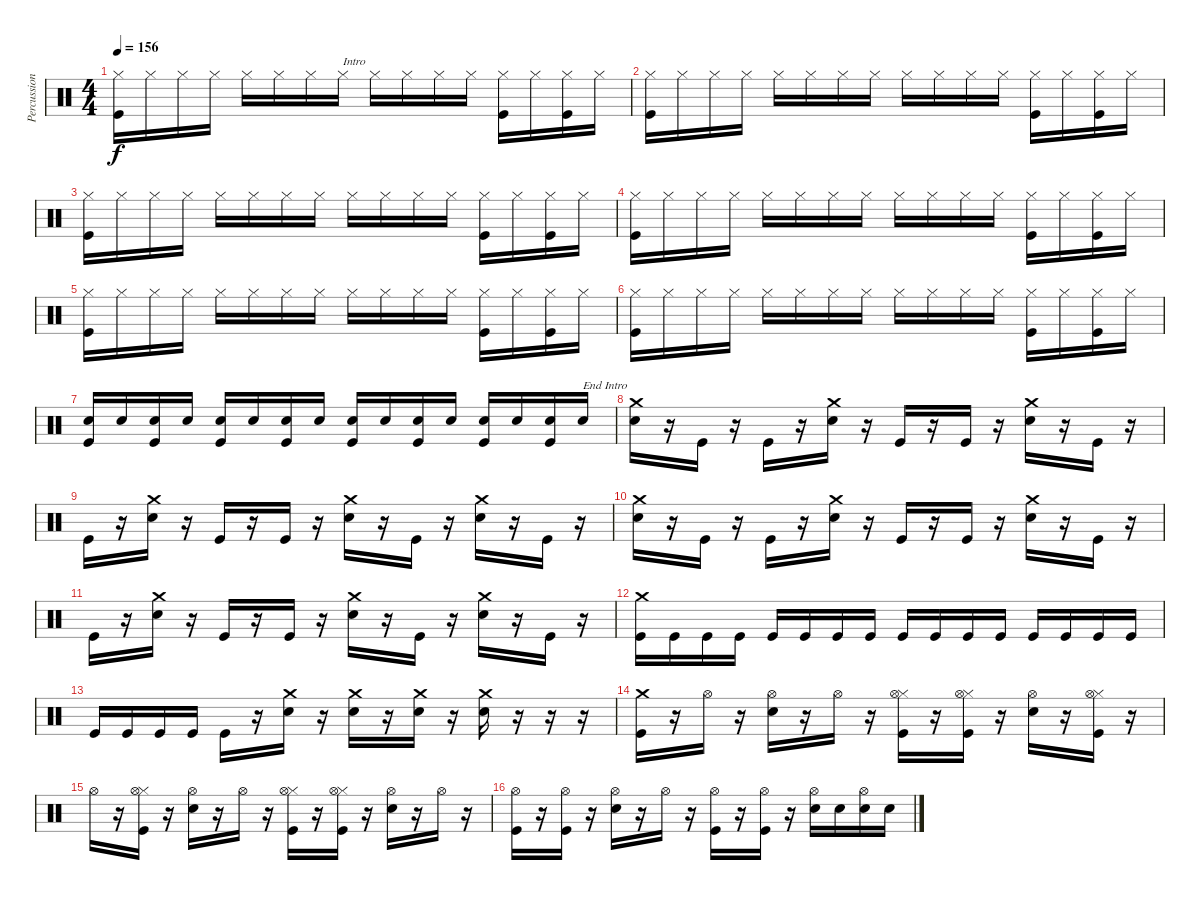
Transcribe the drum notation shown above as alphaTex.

\track ("Percussion" "Percussion") {instrument percussion}
\staff {score}
\articulation defaults
\ts (4 4)
\tempo 156
\clef neutral
\ks c
("Kick (hit)" "Hi-Hat (closed)").16{dy f} "Hi-Hat (closed)".16 "Hi-Hat (closed)".16 "Hi-Hat (closed)".16 "Hi-Hat (closed)".16 "Hi-Hat (closed)".16 "Hi-Hat (closed)".16 "Hi-Hat (closed)".16{txt "Intro"} "Hi-Hat (closed)".16 "Hi-Hat (closed)".16 "Hi-Hat (closed)".16 "Hi-Hat (closed)".16 ("Kick (hit)" "Hi-Hat (closed)").16 "Hi-Hat (closed)".16 ("Kick (hit)" "Hi-Hat (closed)").16 "Hi-Hat (closed)".16 |
("Kick (hit)" "Hi-Hat (closed)").16 "Hi-Hat (closed)".16 "Hi-Hat (closed)".16 "Hi-Hat (closed)".16 "Hi-Hat (closed)".16 "Hi-Hat (closed)".16 "Hi-Hat (closed)".16 "Hi-Hat (closed)".16 "Hi-Hat (closed)".16 "Hi-Hat (closed)".16 "Hi-Hat (closed)".16 "Hi-Hat (closed)".16 ("Kick (hit)" "Hi-Hat (closed)").16 "Hi-Hat (closed)".16 ("Kick (hit)" "Hi-Hat (closed)").16 "Hi-Hat (closed)".16 |
("Kick (hit)" "Hi-Hat (closed)").16 "Hi-Hat (closed)".16 "Hi-Hat (closed)".16 "Hi-Hat (closed)".16 "Hi-Hat (closed)".16 "Hi-Hat (closed)".16 "Hi-Hat (closed)".16 "Hi-Hat (closed)".16 "Hi-Hat (closed)".16 "Hi-Hat (closed)".16 "Hi-Hat (closed)".16 "Hi-Hat (closed)".16 ("Kick (hit)" "Hi-Hat (closed)").16 "Hi-Hat (closed)".16 ("Kick (hit)" "Hi-Hat (closed)").16 "Hi-Hat (closed)".16 |
("Kick (hit)" "Hi-Hat (closed)").16 "Hi-Hat (closed)".16 "Hi-Hat (closed)".16 "Hi-Hat (closed)".16 "Hi-Hat (closed)".16 "Hi-Hat (closed)".16 "Hi-Hat (closed)".16 "Hi-Hat (closed)".16 "Hi-Hat (closed)".16 "Hi-Hat (closed)".16 "Hi-Hat (closed)".16 "Hi-Hat (closed)".16 ("Kick (hit)" "Hi-Hat (closed)").16 "Hi-Hat (closed)".16 ("Kick (hit)" "Hi-Hat (closed)").16 "Hi-Hat (closed)".16 |
("Kick (hit)" "Hi-Hat (closed)").16 "Hi-Hat (closed)".16 "Hi-Hat (closed)".16 "Hi-Hat (closed)".16 "Hi-Hat (closed)".16 "Hi-Hat (closed)".16 "Hi-Hat (closed)".16 "Hi-Hat (closed)".16 "Hi-Hat (closed)".16 "Hi-Hat (closed)".16 "Hi-Hat (closed)".16 "Hi-Hat (closed)".16 ("Kick (hit)" "Hi-Hat (closed)").16 "Hi-Hat (closed)".16 ("Kick (hit)" "Hi-Hat (closed)").16 "Hi-Hat (closed)".16 |
("Kick (hit)" "Hi-Hat (closed)").16 "Hi-Hat (closed)".16 "Hi-Hat (closed)".16 "Hi-Hat (closed)".16 "Hi-Hat (closed)".16 "Hi-Hat (closed)".16 "Hi-Hat (closed)".16 "Hi-Hat (closed)".16 "Hi-Hat (closed)".16 "Hi-Hat (closed)".16 "Hi-Hat (closed)".16 "Hi-Hat (closed)".16 ("Kick (hit)" "Hi-Hat (closed)").16 "Hi-Hat (closed)".16 ("Kick (hit)" "Hi-Hat (closed)").16 "Hi-Hat (closed)".16 |
("Kick (hit)" "Snare (hit) 2").16 "Snare (hit) 2".16 ("Kick (hit)" "Snare (hit) 2").16 "Snare (hit) 2".16 ("Kick (hit)" "Snare (hit) 2").16 "Snare (hit) 2".16 ("Kick (hit)" "Snare (hit) 2").16 "Snare (hit) 2".16 ("Kick (hit)" "Snare (hit) 2").16 "Snare (hit) 2".16 ("Kick (hit)" "Snare (hit) 2").16 "Snare (hit) 2".16 ("Kick (hit)" "Snare (hit) 2").16 "Snare (hit) 2".16 ("Kick (hit)" "Snare (hit) 2").16 "Snare (hit) 2".16{txt "End Intro"} |
("Snare (hit) 2" "Crash medium (hit)").16 r.16 "Kick (hit)".16 r.16 "Kick (hit)".16 r.16 ("Snare (hit) 2" "Crash medium (hit)").16 r.16 "Kick (hit)".16 r.16 "Kick (hit)".16 r.16 ("Snare (hit) 2" "Crash medium (hit)").16 r.16 "Kick (hit)".16 r.16 |
"Kick (hit)".16 r.16 ("Snare (hit) 2" "Crash medium (hit)").16 r.16 "Kick (hit)".16 r.16 "Kick (hit)".16 r.16 ("Snare (hit) 2" "Crash medium (hit)").16 r.16 "Kick (hit)".16 r.16 ("Snare (hit) 2" "Crash medium (hit)").16 r.16 "Kick (hit)".16 r.16 |
("Snare (hit) 2" "Crash medium (hit)").16 r.16 "Kick (hit)".16 r.16 "Kick (hit)".16 r.16 ("Snare (hit) 2" "Crash medium (hit)").16 r.16 "Kick (hit)".16 r.16 "Kick (hit)".16 r.16 ("Snare (hit) 2" "Crash medium (hit)").16 r.16 "Kick (hit)".16 r.16 |
"Kick (hit)".16 r.16 ("Snare (hit) 2" "Crash medium (hit)").16 r.16 "Kick (hit)".16 r.16 "Kick (hit)".16 r.16 ("Snare (hit) 2" "Crash medium (hit)").16 r.16 "Kick (hit)".16 r.16 ("Snare (hit) 2" "Crash medium (hit)").16 r.16 "Kick (hit)".16 r.16 |
("Crash medium (hit)" "Kick (hit)").16 "Kick (hit)".16 "Kick (hit)".16 "Kick (hit)".16 "Kick (hit)".16 "Kick (hit)".16 "Kick (hit)".16 "Kick (hit)".16 "Kick (hit)".16 "Kick (hit)".16 "Kick (hit)".16 "Kick (hit)".16 "Kick (hit)".16 "Kick (hit)".16 "Kick (hit)".16 "Kick (hit)".16 |
"Kick (hit)".16 "Kick (hit)".16 "Kick (hit)".16 "Kick (hit)".16 "Kick (hit)".16 r.16 ("Crash medium (hit)" "Snare (hit) 2").16 r.16 ("Crash medium (hit)" "Snare (hit) 2").16 r.16 ("Crash medium (hit)" "Snare (hit) 2").16 r.16 ("Crash medium (hit)" "Snare (hit) 2").16 r.16 r.16 r.16 |
("Kick (hit)" "Crash medium (hit)").16 r.16 "Hi-Hat (open)".16 r.16 ("Hi-Hat (open)" "Snare (hit) 2").16 r.16 "Hi-Hat (open)".16 r.16 ("Kick (hit)" "Hi-Hat (closed)" "Hi-Hat (open)").16 r.16 ("Kick (hit)" "Hi-Hat (closed)" "Hi-Hat (open)").16 r.16 ("Hi-Hat (open)" "Snare (hit) 2").16 r.16 ("Kick (hit)" "Hi-Hat (closed)" "Hi-Hat (open)").16 r.16 |
"Hi-Hat (open)".16 r.16 ("Kick (hit)" "Hi-Hat (closed)" "Hi-Hat (open)").16 r.16 ("Hi-Hat (open)" "Snare (hit) 2").16 r.16 "Hi-Hat (open)".16 r.16 ("Kick (hit)" "Hi-Hat (closed)" "Hi-Hat (open)").16 r.16 ("Kick (hit)" "Hi-Hat (closed)" "Hi-Hat (open)").16 r.16 ("Hi-Hat (open)" "Snare (hit) 2").16 r.16 "Hi-Hat (open)".16 r.16 |
("Kick (hit)" "Hi-Hat (open)").16 r.16 ("Kick (hit)" "Hi-Hat (open)").16 r.16 ("Snare (hit) 2" "Hi-Hat (open)").16 r.16 "Hi-Hat (open)".16 r.16 ("Kick (hit)" "Hi-Hat (open)").16 r.16 ("Kick (hit)" "Hi-Hat (open)").16 r.16 ("Snare (hit) 2" "Hi-Hat (open)").16 "Snare (hit) 2".16 ("Snare (hit) 2" "Hi-Hat (open)").16 "Snare (hit) 2".16
